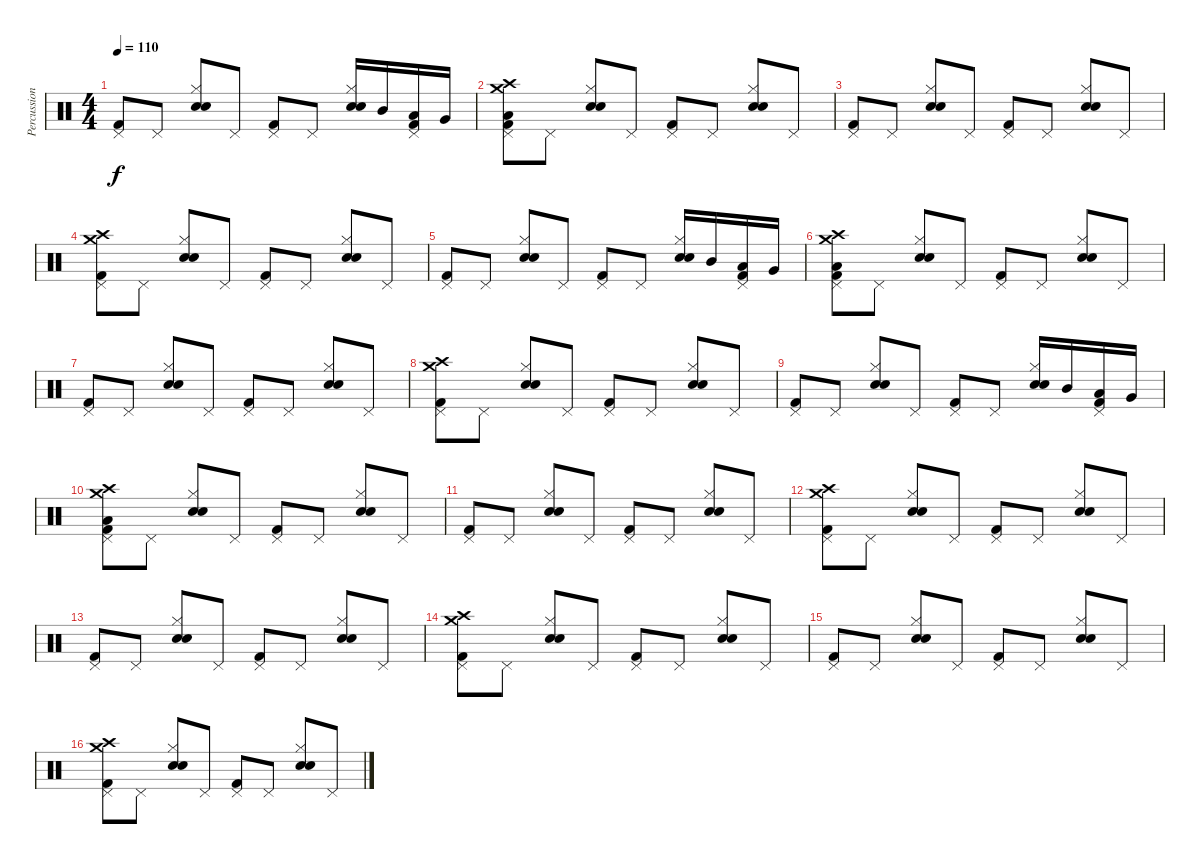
\track ("Percussion" "Percussion") {instrument percussion}
\staff {score}
\articulation defaults
\ts (4 4)
\tempo 110
\clef neutral
\ks c
("Pedal Hi-Hat (hit)" "Kick (hit) 2").8{dy f} "Pedal Hi-Hat (hit)".8 ("Electric Snare (hit)" "Hi-Hat (closed)" "Snare (hit) 2").8 "Pedal Hi-Hat (hit)".8 ("Pedal Hi-Hat (hit)" "Kick (hit) 2").8 "Pedal Hi-Hat (hit)".8 ("Electric Snare (hit)" "Hi-Hat (closed)" "Snare (hit) 2").16 "Mid Tom (hit)".16 ("Low Tom (hit)" "Pedal Hi-Hat (hit)" "Kick (hit) 2").16 "Very Low Tom (hit)".16 |
("Low Floor Tom (hit)" "Crash medium (hit)" "Crash high (hit)" "Pedal Hi-Hat (hit)" "Kick (hit) 2").8 "Pedal Hi-Hat (hit)".8 ("Electric Snare (hit)" "Hi-Hat (closed)" "Snare (hit) 2").8 "Pedal Hi-Hat (hit)".8 ("Pedal Hi-Hat (hit)" "Kick (hit) 2").8 "Pedal Hi-Hat (hit)".8 ("Electric Snare (hit)" "Hi-Hat (closed)" "Snare (hit) 2").8 "Pedal Hi-Hat (hit)".8 |
("Pedal Hi-Hat (hit)" "Kick (hit) 2").8 "Pedal Hi-Hat (hit)".8 ("Electric Snare (hit)" "Hi-Hat (closed)" "Snare (hit) 2").8 "Pedal Hi-Hat (hit)".8 ("Pedal Hi-Hat (hit)" "Kick (hit) 2").8 "Pedal Hi-Hat (hit)".8 ("Electric Snare (hit)" "Hi-Hat (closed)" "Snare (hit) 2").8 "Pedal Hi-Hat (hit)".8 |
("Crash medium (hit)" "Crash high (hit)" "Pedal Hi-Hat (hit)" "Kick (hit) 2").8 "Pedal Hi-Hat (hit)".8 ("Electric Snare (hit)" "Hi-Hat (closed)" "Snare (hit) 2").8 "Pedal Hi-Hat (hit)".8 ("Pedal Hi-Hat (hit)" "Kick (hit) 2").8 "Pedal Hi-Hat (hit)".8 ("Electric Snare (hit)" "Hi-Hat (closed)" "Snare (hit) 2").8 "Pedal Hi-Hat (hit)".8 |
("Pedal Hi-Hat (hit)" "Kick (hit) 2").8 "Pedal Hi-Hat (hit)".8 ("Electric Snare (hit)" "Hi-Hat (closed)" "Snare (hit) 2").8 "Pedal Hi-Hat (hit)".8 ("Pedal Hi-Hat (hit)" "Kick (hit) 2").8 "Pedal Hi-Hat (hit)".8 ("Electric Snare (hit)" "Hi-Hat (closed)" "Snare (hit) 2").16 "Mid Tom (hit)".16 ("Low Tom (hit)" "Pedal Hi-Hat (hit)" "Kick (hit) 2").16 "Very Low Tom (hit)".16 |
("Low Floor Tom (hit)" "Crash medium (hit)" "Crash high (hit)" "Pedal Hi-Hat (hit)" "Kick (hit) 2").8 "Pedal Hi-Hat (hit)".8 ("Electric Snare (hit)" "Hi-Hat (closed)" "Snare (hit) 2").8 "Pedal Hi-Hat (hit)".8 ("Pedal Hi-Hat (hit)" "Kick (hit) 2").8 "Pedal Hi-Hat (hit)".8 ("Electric Snare (hit)" "Hi-Hat (closed)" "Snare (hit) 2").8 "Pedal Hi-Hat (hit)".8 |
("Pedal Hi-Hat (hit)" "Kick (hit) 2").8 "Pedal Hi-Hat (hit)".8 ("Electric Snare (hit)" "Hi-Hat (closed)" "Snare (hit) 2").8 "Pedal Hi-Hat (hit)".8 ("Pedal Hi-Hat (hit)" "Kick (hit) 2").8 "Pedal Hi-Hat (hit)".8 ("Electric Snare (hit)" "Hi-Hat (closed)" "Snare (hit) 2").8 "Pedal Hi-Hat (hit)".8 |
("Crash medium (hit)" "Crash high (hit)" "Pedal Hi-Hat (hit)" "Kick (hit) 2").8 "Pedal Hi-Hat (hit)".8 ("Electric Snare (hit)" "Hi-Hat (closed)" "Snare (hit) 2").8 "Pedal Hi-Hat (hit)".8 ("Pedal Hi-Hat (hit)" "Kick (hit) 2").8 "Pedal Hi-Hat (hit)".8 ("Electric Snare (hit)" "Hi-Hat (closed)" "Snare (hit) 2").8 "Pedal Hi-Hat (hit)".8 |
("Pedal Hi-Hat (hit)" "Kick (hit) 2").8 "Pedal Hi-Hat (hit)".8 ("Electric Snare (hit)" "Hi-Hat (closed)" "Snare (hit) 2").8 "Pedal Hi-Hat (hit)".8 ("Pedal Hi-Hat (hit)" "Kick (hit) 2").8 "Pedal Hi-Hat (hit)".8 ("Electric Snare (hit)" "Hi-Hat (closed)" "Snare (hit) 2").16 "Mid Tom (hit)".16 ("Low Tom (hit)" "Pedal Hi-Hat (hit)" "Kick (hit) 2").16 "Very Low Tom (hit)".16 |
("Low Floor Tom (hit)" "Crash medium (hit)" "Crash high (hit)" "Pedal Hi-Hat (hit)" "Kick (hit) 2").8 "Pedal Hi-Hat (hit)".8 ("Electric Snare (hit)" "Hi-Hat (closed)" "Snare (hit) 2").8 "Pedal Hi-Hat (hit)".8 ("Pedal Hi-Hat (hit)" "Kick (hit) 2").8 "Pedal Hi-Hat (hit)".8 ("Electric Snare (hit)" "Hi-Hat (closed)" "Snare (hit) 2").8 "Pedal Hi-Hat (hit)".8 |
("Pedal Hi-Hat (hit)" "Kick (hit) 2").8 "Pedal Hi-Hat (hit)".8 ("Electric Snare (hit)" "Hi-Hat (closed)" "Snare (hit) 2").8 "Pedal Hi-Hat (hit)".8 ("Pedal Hi-Hat (hit)" "Kick (hit) 2").8 "Pedal Hi-Hat (hit)".8 ("Electric Snare (hit)" "Hi-Hat (closed)" "Snare (hit) 2").8 "Pedal Hi-Hat (hit)".8 |
("Crash medium (hit)" "Crash high (hit)" "Pedal Hi-Hat (hit)" "Kick (hit) 2").8 "Pedal Hi-Hat (hit)".8 ("Electric Snare (hit)" "Hi-Hat (closed)" "Snare (hit) 2").8 "Pedal Hi-Hat (hit)".8 ("Pedal Hi-Hat (hit)" "Kick (hit) 2").8 "Pedal Hi-Hat (hit)".8 ("Electric Snare (hit)" "Hi-Hat (closed)" "Snare (hit) 2").8 "Pedal Hi-Hat (hit)".8 |
("Pedal Hi-Hat (hit)" "Kick (hit) 2").8 "Pedal Hi-Hat (hit)".8 ("Electric Snare (hit)" "Hi-Hat (closed)" "Snare (hit) 2").8 "Pedal Hi-Hat (hit)".8 ("Pedal Hi-Hat (hit)" "Kick (hit) 2").8 "Pedal Hi-Hat (hit)".8 ("Electric Snare (hit)" "Hi-Hat (closed)" "Snare (hit) 2").8 "Pedal Hi-Hat (hit)".8 |
("Crash medium (hit)" "Crash high (hit)" "Pedal Hi-Hat (hit)" "Kick (hit) 2").8 "Pedal Hi-Hat (hit)".8 ("Electric Snare (hit)" "Hi-Hat (closed)" "Snare (hit) 2").8 "Pedal Hi-Hat (hit)".8 ("Pedal Hi-Hat (hit)" "Kick (hit) 2").8 "Pedal Hi-Hat (hit)".8 ("Electric Snare (hit)" "Hi-Hat (closed)" "Snare (hit) 2").8 "Pedal Hi-Hat (hit)".8 |
("Pedal Hi-Hat (hit)" "Kick (hit) 2").8 "Pedal Hi-Hat (hit)".8 ("Electric Snare (hit)" "Hi-Hat (closed)" "Snare (hit) 2").8 "Pedal Hi-Hat (hit)".8 ("Pedal Hi-Hat (hit)" "Kick (hit) 2").8 "Pedal Hi-Hat (hit)".8 ("Electric Snare (hit)" "Hi-Hat (closed)" "Snare (hit) 2").8 "Pedal Hi-Hat (hit)".8 |
("Crash medium (hit)" "Crash high (hit)" "Pedal Hi-Hat (hit)" "Kick (hit) 2").8 "Pedal Hi-Hat (hit)".8 ("Electric Snare (hit)" "Hi-Hat (closed)" "Snare (hit) 2").8 "Pedal Hi-Hat (hit)".8 ("Pedal Hi-Hat (hit)" "Kick (hit) 2").8 "Pedal Hi-Hat (hit)".8 ("Electric Snare (hit)" "Hi-Hat (closed)" "Snare (hit) 2").8 "Pedal Hi-Hat (hit)".8
